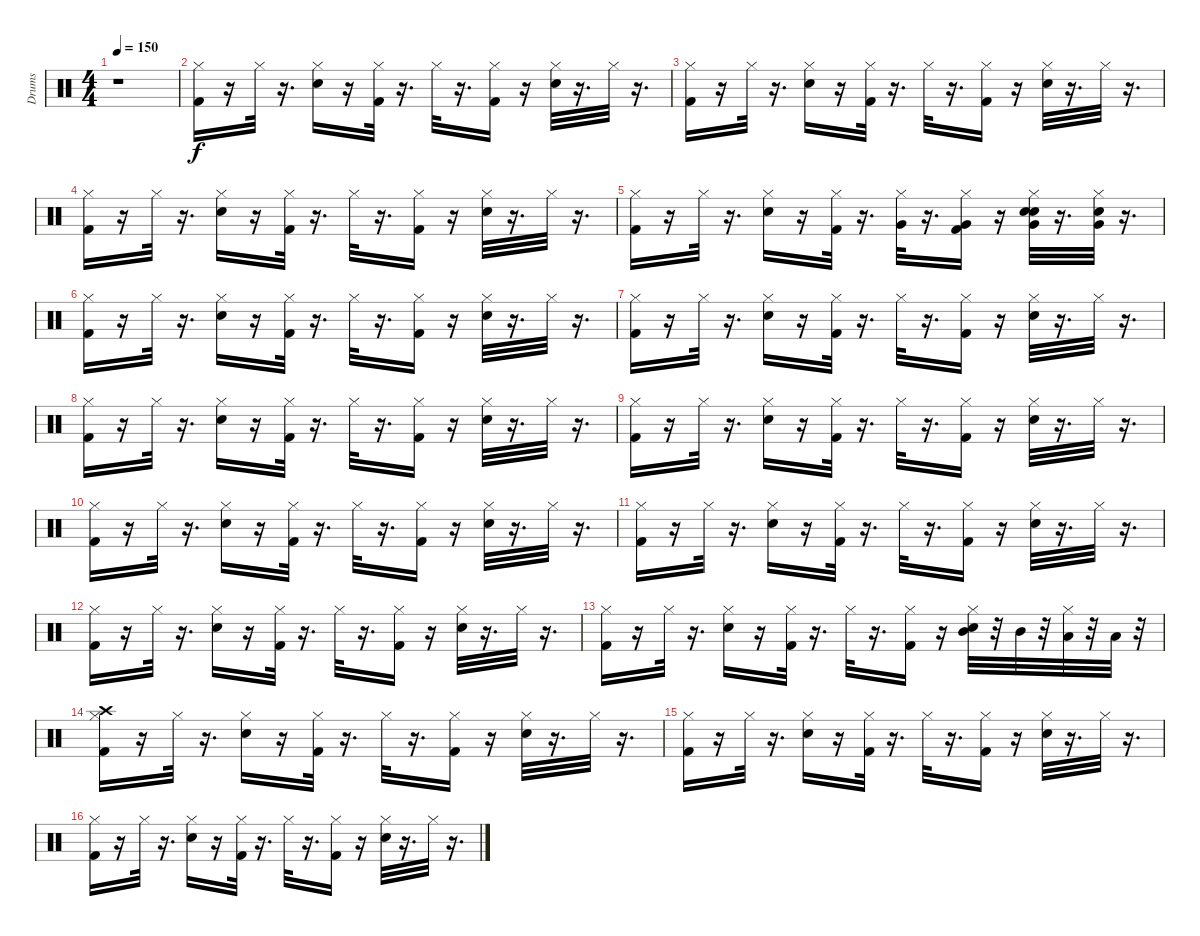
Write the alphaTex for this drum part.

\track ("Drums" "Drums") {instrument percussion}
\staff {score}
\articulation defaults
\ts (4 4)
\tempo 150
\clef neutral
\ks c
r.1{dy f} |
("Hi-Hat (closed)" "Kick (hit) 2").16 r.16 "Hi-Hat (closed)".32 r.16{d} ("Electric Snare (hit)" "Hi-Hat (closed)").16 r.16 ("Kick (hit) 2" "Hi-Hat (closed)").32 r.16{d} "Hi-Hat (closed)".32 r.16{d} ("Kick (hit) 2" "Hi-Hat (closed)").16 r.16 ("Electric Snare (hit)" "Hi-Hat (closed)").32 r.16{d} "Hi-Hat (closed)".32 r.16{d} |
("Kick (hit) 2" "Hi-Hat (closed)").16 r.16 "Hi-Hat (closed)".32 r.16{d} ("Electric Snare (hit)" "Hi-Hat (closed)").16 r.16 ("Kick (hit) 2" "Hi-Hat (closed)").32 r.16{d} "Hi-Hat (closed)".32 r.16{d} ("Kick (hit) 2" "Hi-Hat (closed)").16 r.16 ("Electric Snare (hit)" "Hi-Hat (closed)").32 r.16{d} "Hi-Hat (closed)".32 r.16{d} |
("Kick (hit) 2" "Hi-Hat (closed)").16 r.16 "Hi-Hat (closed)".32 r.16{d} ("Electric Snare (hit)" "Hi-Hat (closed)").16 r.16 ("Kick (hit) 2" "Hi-Hat (closed)").32 r.16{d} "Hi-Hat (closed)".32 r.16{d} ("Kick (hit) 2" "Hi-Hat (closed)").16 r.16 ("Electric Snare (hit)" "Hi-Hat (closed)").32 r.16{d} "Hi-Hat (closed)".32 r.16{d} |
("Kick (hit) 2" "Hi-Hat (closed)").16 r.16 "Hi-Hat (closed)".32 r.16{d} ("Electric Snare (hit)" "Hi-Hat (closed)").16 r.16 ("Kick (hit) 2" "Hi-Hat (closed)").32 r.16{d} ("Hi-Hat (closed)" "Very Low Tom (hit)").32 r.16{d} ("Kick (hit) 2" "Hi-Hat (closed)" "Very Low Tom (hit)").16 r.16 ("Electric Snare (hit)" "Hand Clap (hit)" "Hi-Hat (closed)" "Very Low Tom (hit)").32 r.16{d} ("Hand Clap (hit)" "Hi-Hat (closed)" "Very Low Tom (hit)").32 r.16{d} |
("Hi-Hat (closed)" "Kick (hit) 2").16 r.16 "Hi-Hat (closed)".32 r.16{d} ("Electric Snare (hit)" "Hi-Hat (closed)").16 r.16 ("Kick (hit) 2" "Hi-Hat (closed)").32 r.16{d} "Hi-Hat (closed)".32 r.16{d} ("Kick (hit) 2" "Hi-Hat (closed)").16 r.16 ("Electric Snare (hit)" "Hi-Hat (closed)").32 r.16{d} "Hi-Hat (closed)".32 r.16{d} |
("Kick (hit) 2" "Hi-Hat (closed)").16 r.16 "Hi-Hat (closed)".32 r.16{d} ("Electric Snare (hit)" "Hi-Hat (closed)").16 r.16 ("Kick (hit) 2" "Hi-Hat (closed)").32 r.16{d} "Hi-Hat (closed)".32 r.16{d} ("Kick (hit) 2" "Hi-Hat (closed)").16 r.16 ("Electric Snare (hit)" "Hi-Hat (closed)").32 r.16{d} "Hi-Hat (closed)".32 r.16{d} |
("Kick (hit) 2" "Hi-Hat (closed)").16 r.16 "Hi-Hat (closed)".32 r.16{d} ("Electric Snare (hit)" "Hi-Hat (closed)").16 r.16 ("Kick (hit) 2" "Hi-Hat (closed)").32 r.16{d} "Hi-Hat (closed)".32 r.16{d} ("Kick (hit) 2" "Hi-Hat (closed)").16 r.16 ("Electric Snare (hit)" "Hi-Hat (closed)").32 r.16{d} "Hi-Hat (closed)".32 r.16{d} |
("Kick (hit) 2" "Hi-Hat (closed)").16 r.16 "Hi-Hat (closed)".32 r.16{d} ("Electric Snare (hit)" "Hi-Hat (closed)").16 r.16 ("Kick (hit) 2" "Hi-Hat (closed)").32 r.16{d} "Hi-Hat (closed)".32 r.16{d} ("Kick (hit) 2" "Hi-Hat (closed)").16 r.16 ("Electric Snare (hit)" "Hi-Hat (closed)").32 r.16{d} "Hi-Hat (closed)".32 r.16{d} |
("Hi-Hat (closed)" "Kick (hit) 2").16 r.16 "Hi-Hat (closed)".32 r.16{d} ("Electric Snare (hit)" "Hi-Hat (closed)").16 r.16 ("Kick (hit) 2" "Hi-Hat (closed)").32 r.16{d} "Hi-Hat (closed)".32 r.16{d} ("Kick (hit) 2" "Hi-Hat (closed)").16 r.16 ("Electric Snare (hit)" "Hi-Hat (closed)").32 r.16{d} "Hi-Hat (closed)".32 r.16{d} |
("Kick (hit) 2" "Hi-Hat (closed)").16 r.16 "Hi-Hat (closed)".32 r.16{d} ("Electric Snare (hit)" "Hi-Hat (closed)").16 r.16 ("Kick (hit) 2" "Hi-Hat (closed)").32 r.16{d} "Hi-Hat (closed)".32 r.16{d} ("Kick (hit) 2" "Hi-Hat (closed)").16 r.16 ("Electric Snare (hit)" "Hi-Hat (closed)").32 r.16{d} "Hi-Hat (closed)".32 r.16{d} |
("Kick (hit) 2" "Hi-Hat (closed)").16 r.16 "Hi-Hat (closed)".32 r.16{d} ("Electric Snare (hit)" "Hi-Hat (closed)").16 r.16 ("Kick (hit) 2" "Hi-Hat (closed)").32 r.16{d} "Hi-Hat (closed)".32 r.16{d} ("Kick (hit) 2" "Hi-Hat (closed)").16 r.16 ("Electric Snare (hit)" "Hi-Hat (closed)").32 r.16{d} "Hi-Hat (closed)".32 r.16{d} |
("Kick (hit) 2" "Hi-Hat (closed)").16 r.16 "Hi-Hat (closed)".32 r.16{d} ("Electric Snare (hit)" "Hi-Hat (closed)").16 r.16 ("Kick (hit) 2" "Hi-Hat (closed)").32 r.16{d} "Hi-Hat (closed)".32 r.16{d} ("Kick (hit) 2" "Hi-Hat (closed)").16 r.16 ("Electric Snare (hit)" "Hi-Hat (closed)" "Mid Tom (hit)").32 r.32 "Mid Tom (hit)".32 r.32 ("Hi-Hat (closed)" "Low Tom (hit)").32 r.32 "Low Tom (hit)".32 r.32 |
("Hi-Hat (closed)" "Crash high (hit)" "Kick (hit) 2").16 r.16 "Hi-Hat (closed)".32 r.16{d} ("Electric Snare (hit)" "Hi-Hat (closed)").16 r.16 ("Kick (hit) 2" "Hi-Hat (closed)").32 r.16{d} "Hi-Hat (closed)".32 r.16{d} ("Kick (hit) 2" "Hi-Hat (closed)").16 r.16 ("Electric Snare (hit)" "Hi-Hat (closed)").32 r.16{d} "Hi-Hat (closed)".32 r.16{d} |
("Kick (hit) 2" "Hi-Hat (closed)").16 r.16 "Hi-Hat (closed)".32 r.16{d} ("Electric Snare (hit)" "Hi-Hat (closed)").16 r.16 ("Kick (hit) 2" "Hi-Hat (closed)").32 r.16{d} "Hi-Hat (closed)".32 r.16{d} ("Kick (hit) 2" "Hi-Hat (closed)").16 r.16 ("Electric Snare (hit)" "Hi-Hat (closed)").32 r.16{d} "Hi-Hat (closed)".32 r.16{d} |
("Kick (hit) 2" "Hi-Hat (closed)").16 r.16 "Hi-Hat (closed)".32 r.16{d} ("Electric Snare (hit)" "Hi-Hat (closed)").16 r.16 ("Kick (hit) 2" "Hi-Hat (closed)").32 r.16{d} "Hi-Hat (closed)".32 r.16{d} ("Kick (hit) 2" "Hi-Hat (closed)").16 r.16 ("Electric Snare (hit)" "Hi-Hat (closed)").32 r.16{d} "Hi-Hat (closed)".32 r.16{d}
